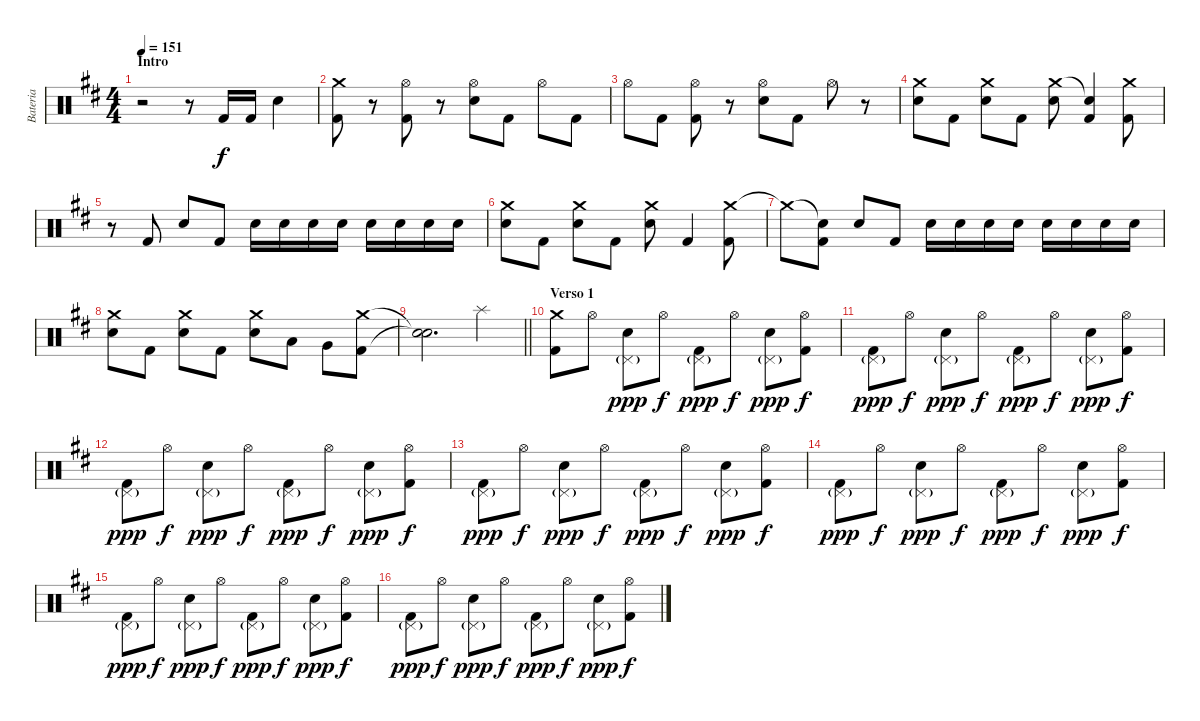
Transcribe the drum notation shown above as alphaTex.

\track ("Bateria " "Bateria ") {instrument percussion}
\staff {score}
\articulation defaults
\ts (4 4)
\section ("" "Intro")
\tempo 151
\clef neutral
\ks d
r.2{dy f} r.8 "Kick (hit) 2".16 "Kick (hit) 2".16 "Electric Snare (hit)".4 |
("Crash medium (hit)" "Kick (hit) 2").8 r.8 ("Hi-Hat (open)" "Kick (hit) 2").8 r.8 ("Hi-Hat (open)" "Electric Snare (hit)").8 "Kick (hit) 2".8 "Hi-Hat (open)".8 "Kick (hit) 2".8 |
"Hi-Hat (open)".8 "Kick (hit) 2".8 ("Hi-Hat (open)" "Kick (hit) 2").8 r.8 ("Hi-Hat (open)" "Electric Snare (hit)").8 "Kick (hit) 2".8 "Hi-Hat (open)".8 r.8 |
("Crash medium (hit)" "Electric Snare (hit)").8 "Kick (hit) 2".8 ("Crash medium (hit)" "Electric Snare (hit)").8 "Kick (hit) 2".8 ("Crash medium (hit)" "Electric Snare (hit)").8 ("Snare (hit)"{t} "Kick (hit) 2").4 ("Crash medium (hit)" "Kick (hit) 2").8 |
r.8 "Kick (hit) 2".8 "Electric Snare (hit)".8 "Kick (hit) 2".8 "Electric Snare (hit)".16 "Electric Snare (hit)".16 "Electric Snare (hit)".16 "Electric Snare (hit)".16 "Electric Snare (hit)".16 "Electric Snare (hit)".16 "Electric Snare (hit)".16 "Electric Snare (hit)".16 |
("Crash medium (hit)" "Electric Snare (hit)").8 "Kick (hit) 2".8 ("Crash medium (hit)" "Electric Snare (hit)").8 "Kick (hit) 2".8 ("Crash medium (hit)" "Electric Snare (hit)").8 "Kick (hit) 2".4 ("Crash medium (hit)" "Kick (hit) 2").8 |
"Crash medium (hit)"{t}.8 ("Snare (hit)"{t} "Kick (hit) 2").8 "Electric Snare (hit)".8 "Kick (hit) 2".8 "Electric Snare (hit)".16 "Electric Snare (hit)".16 "Electric Snare (hit)".16 "Electric Snare (hit)".16 "Electric Snare (hit)".16 "Electric Snare (hit)".16 "Electric Snare (hit)".16 "Electric Snare (hit)".16 |
("Crash medium (hit)" "Electric Snare (hit)").8 "Kick (hit) 2".8 ("Crash medium (hit)" "Electric Snare (hit)").8 "Kick (hit) 2".8 ("Crash medium (hit)" "Electric Snare (hit)").8 "Low Tom (hit)".8 "Very Low Tom (hit)".8 ("Crash medium (hit)" "Kick (hit) 2").8 |
\barLineRight lightlight
("Snare (hit)"{t} "Snare (hit)"{t}).2{d} "Splash (hit)".4 |
\section ("" "Verso 1")
("Crash medium (hit)" "Kick (hit) 2").8 "Hi-Hat (open)".8 ("Pedal Hi-Hat (hit)"{g} "Electric Snare (hit)").8{dy ppp} "Hi-Hat (open)".8{dy f} ("Pedal Hi-Hat (hit)"{g} "Kick (hit) 2").8{dy ppp} "Hi-Hat (open)".8{dy f} ("Pedal Hi-Hat (hit)"{g} "Electric Snare (hit)").8{dy ppp} ("Hi-Hat (open)" "Kick (hit) 2").8{dy f} |
("Pedal Hi-Hat (hit)"{g} "Kick (hit) 2").8{dy ppp} "Hi-Hat (open)".8{dy f} ("Pedal Hi-Hat (hit)"{g} "Electric Snare (hit)").8{dy ppp} "Hi-Hat (open)".8{dy f} ("Pedal Hi-Hat (hit)"{g} "Kick (hit) 2").8{dy ppp} "Hi-Hat (open)".8{dy f} ("Pedal Hi-Hat (hit)"{g} "Electric Snare (hit)").8{dy ppp} ("Hi-Hat (open)" "Kick (hit) 2").8{dy f} |
("Pedal Hi-Hat (hit)"{g} "Kick (hit) 2").8{dy ppp} "Hi-Hat (open)".8{dy f} ("Pedal Hi-Hat (hit)"{g} "Electric Snare (hit)").8{dy ppp} "Hi-Hat (open)".8{dy f} ("Pedal Hi-Hat (hit)"{g} "Kick (hit) 2").8{dy ppp} "Hi-Hat (open)".8{dy f} ("Pedal Hi-Hat (hit)"{g} "Electric Snare (hit)").8{dy ppp} ("Hi-Hat (open)" "Kick (hit) 2").8{dy f} |
("Pedal Hi-Hat (hit)"{g} "Kick (hit) 2").8{dy ppp} "Hi-Hat (open)".8{dy f} ("Pedal Hi-Hat (hit)"{g} "Electric Snare (hit)").8{dy ppp} "Hi-Hat (open)".8{dy f} ("Pedal Hi-Hat (hit)"{g} "Kick (hit) 2").8{dy ppp} "Hi-Hat (open)".8{dy f} ("Pedal Hi-Hat (hit)"{g} "Electric Snare (hit)").8{dy ppp} ("Hi-Hat (open)" "Kick (hit) 2").8{dy f} |
("Pedal Hi-Hat (hit)"{g} "Kick (hit) 2").8{dy ppp} "Hi-Hat (open)".8{dy f} ("Pedal Hi-Hat (hit)"{g} "Electric Snare (hit)").8{dy ppp} "Hi-Hat (open)".8{dy f} ("Pedal Hi-Hat (hit)"{g} "Kick (hit) 2").8{dy ppp} "Hi-Hat (open)".8{dy f} ("Pedal Hi-Hat (hit)"{g} "Electric Snare (hit)").8{dy ppp} ("Hi-Hat (open)" "Kick (hit) 2").8{dy f} |
("Pedal Hi-Hat (hit)"{g} "Kick (hit) 2").8{dy ppp} "Hi-Hat (open)".8{dy f} ("Pedal Hi-Hat (hit)"{g} "Electric Snare (hit)").8{dy ppp} "Hi-Hat (open)".8{dy f} ("Pedal Hi-Hat (hit)"{g} "Kick (hit) 2").8{dy ppp} "Hi-Hat (open)".8{dy f} ("Pedal Hi-Hat (hit)"{g} "Electric Snare (hit)").8{dy ppp} ("Hi-Hat (open)" "Kick (hit) 2").8{dy f} |
("Pedal Hi-Hat (hit)"{g} "Kick (hit) 2").8{dy ppp} "Hi-Hat (open)".8{dy f} ("Pedal Hi-Hat (hit)"{g} "Electric Snare (hit)").8{dy ppp} "Hi-Hat (open)".8{dy f} ("Pedal Hi-Hat (hit)"{g} "Kick (hit) 2").8{dy ppp} "Hi-Hat (open)".8{dy f} ("Pedal Hi-Hat (hit)"{g} "Electric Snare (hit)").8{dy ppp} ("Hi-Hat (open)" "Kick (hit) 2").8{dy f}
